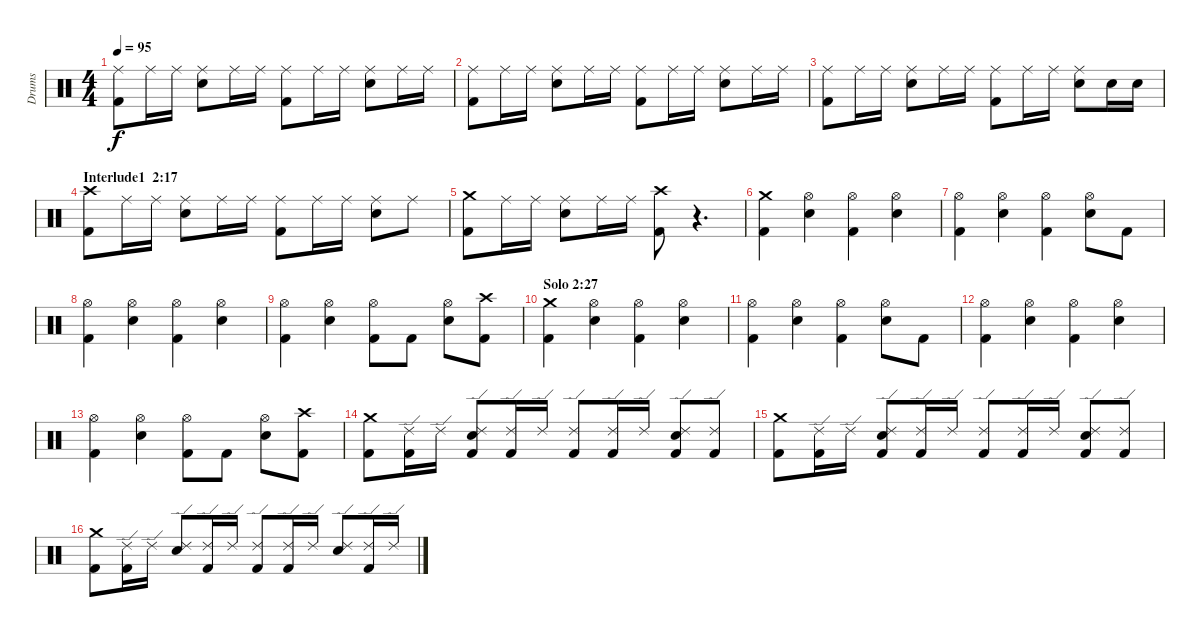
\track ("Drums" "Drums") {instrument percussion}
\staff {score}
\articulation defaults
\ts (4 4)
\tempo 95
\clef neutral
\ks c
("Ride (middle)" "Kick (hit) 2").8{dy f} "Ride (middle)".16 "Ride (middle)".16 ("Ride (middle)" "Snare (hit) 2").8 "Ride (middle)".16 "Ride (middle)".16 ("Ride (middle)" "Kick (hit) 2").8 "Ride (middle)".16 "Ride (middle)".16 ("Ride (middle)" "Snare (hit) 2").8 "Ride (middle)".16 "Ride (middle)".16 |
("Ride (middle)" "Kick (hit) 2").8 "Ride (middle)".16 "Ride (middle)".16 ("Ride (middle)" "Snare (hit) 2").8 "Ride (middle)".16 "Ride (middle)".16 ("Ride (middle)" "Kick (hit) 2").8 "Ride (middle)".16 "Ride (middle)".16 ("Ride (middle)" "Snare (hit) 2").8 "Ride (middle)".16 "Ride (middle)".16 |
("Ride (middle)" "Kick (hit) 2").8 "Ride (middle)".16 "Ride (middle)".16 ("Ride (middle)" "Snare (hit) 2").8 "Ride (middle)".16 "Ride (middle)".16 ("Ride (middle)" "Kick (hit) 2").8 "Ride (middle)".16 "Ride (middle)".16 ("Ride (middle)" "Snare (hit) 2").8 "Snare (hit) 2".16 "Snare (hit) 2".16 |
\section ("" "Interlude1  2:17")
("Crash high (hit)" "Kick (hit) 2").8 "Ride (middle)".16 "Ride (middle)".16 ("Ride (middle)" "Snare (hit) 2").8 "Ride (middle)".16 "Ride (middle)".16 ("Ride (middle)" "Kick (hit) 2").8 "Ride (middle)".16 "Ride (middle)".16 ("Ride (middle)" "Snare (hit) 2").8 "Ride (middle)".8 |
("Crash medium (hit)" "Kick (hit) 2").8 "Ride (middle)".16 "Ride (middle)".16 ("Ride (middle)" "Snare (hit) 2").8 "Ride (middle)".16 "Ride (middle)".16 ("Crash high (hit)" "Kick (hit) 2").8 r.4{d} |
("Crash medium (hit)" "Kick (hit) 2").4 ("Hi-Hat (open)" "Snare (hit) 2").4 ("Hi-Hat (open)" "Kick (hit) 2").4 ("Hi-Hat (open)" "Snare (hit) 2").4 |
("Hi-Hat (open)" "Kick (hit) 2").4 ("Hi-Hat (open)" "Snare (hit) 2").4 ("Hi-Hat (open)" "Kick (hit) 2").4 ("Hi-Hat (open)" "Snare (hit) 2").8 "Kick (hit) 2".8 |
("Hi-Hat (open)" "Kick (hit) 2").4 ("Hi-Hat (open)" "Snare (hit) 2").4 ("Hi-Hat (open)" "Kick (hit) 2").4 ("Hi-Hat (open)" "Snare (hit) 2").4 |
("Hi-Hat (open)" "Kick (hit) 2").4 ("Hi-Hat (open)" "Snare (hit) 2").4 ("Hi-Hat (open)" "Kick (hit) 2").8 "Kick (hit) 2".8 ("Hi-Hat (open)" "Snare (hit) 2").8 ("Crash high (hit)" "Kick (hit) 2").8 |
\section ("" "Solo 2:27")
("Crash medium (hit)" "Kick (hit) 2").4 ("Hi-Hat (open)" "Snare (hit) 2").4 ("Hi-Hat (open)" "Kick (hit) 2").4 ("Hi-Hat (open)" "Snare (hit) 2").4 |
("Hi-Hat (open)" "Kick (hit) 2").4 ("Hi-Hat (open)" "Snare (hit) 2").4 ("Hi-Hat (open)" "Kick (hit) 2").4 ("Hi-Hat (open)" "Snare (hit) 2").8 "Kick (hit) 2".8 |
("Hi-Hat (open)" "Kick (hit) 2").4 ("Hi-Hat (open)" "Snare (hit) 2").4 ("Hi-Hat (open)" "Kick (hit) 2").4 ("Hi-Hat (open)" "Snare (hit) 2").4 |
("Hi-Hat (open)" "Kick (hit) 2").4 ("Hi-Hat (open)" "Snare (hit) 2").4 ("Hi-Hat (open)" "Kick (hit) 2").8 "Kick (hit) 2".8 ("Hi-Hat (open)" "Snare (hit) 2").8 ("Crash high (hit)" "Kick (hit) 2").8 |
("Crash medium (hit)" "Kick (hit) 2").8 ("Ride (edge) 2" "Kick (hit) 2").16 "Ride (edge) 2".16 ("Ride (edge) 2" "Snare (hit) 2" "Kick (hit) 2").8 ("Ride (edge) 2" "Kick (hit) 2").16 "Ride (edge) 2".16 ("Ride (edge) 2" "Kick (hit) 2").8 ("Ride (edge) 2" "Kick (hit) 2").16 "Ride (edge) 2".16 ("Ride (edge) 2" "Snare (hit) 2" "Kick (hit) 2").8 ("Ride (edge) 2" "Kick (hit) 2").8 |
("Crash medium (hit)" "Kick (hit) 2").8 ("Ride (edge) 2" "Kick (hit) 2").16 "Ride (edge) 2".16 ("Ride (edge) 2" "Snare (hit) 2" "Kick (hit) 2").8 ("Ride (edge) 2" "Kick (hit) 2").16 "Ride (edge) 2".16 ("Ride (edge) 2" "Kick (hit) 2").8 ("Ride (edge) 2" "Kick (hit) 2").16 "Ride (edge) 2".16 ("Ride (edge) 2" "Snare (hit) 2" "Kick (hit) 2").8 ("Ride (edge) 2" "Kick (hit) 2").8 |
("Crash medium (hit)" "Kick (hit) 2").8 ("Ride (edge) 2" "Kick (hit) 2").16 "Ride (edge) 2".16 ("Ride (edge) 2" "Snare (hit) 2").8 ("Ride (edge) 2" "Kick (hit) 2").16 "Ride (edge) 2".16 ("Ride (edge) 2" "Kick (hit) 2").8 ("Ride (edge) 2" "Kick (hit) 2").16 "Ride (edge) 2".16 ("Ride (edge) 2" "Snare (hit) 2").8 ("Ride (edge) 2" "Kick (hit) 2").16 "Ride (edge) 2".16
